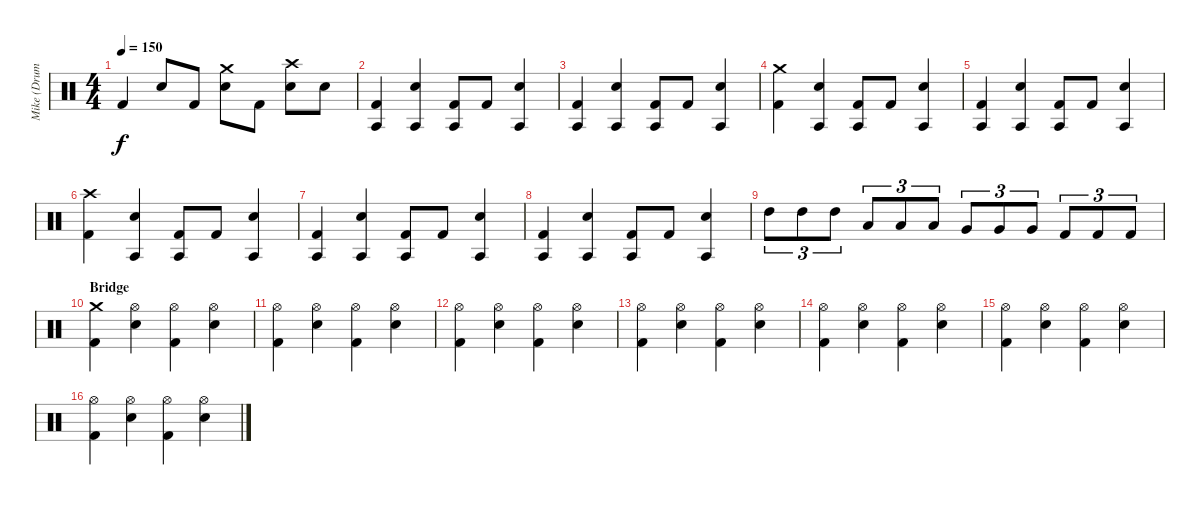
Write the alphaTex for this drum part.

\track ("Mike (Drums)" "Mike (Drum") {instrument percussion}
\staff {score}
\articulation defaults
\ts (4 4)
\tempo 150
\clef neutral
\ks c "Kick (hit) 2".4{dy f} "Snare (hit) 2".8 "Kick (hit) 2".8
("Snare (hit) 2" "Crash medium (hit)").8 "Kick (hit) 2".8 ("Snare (hit) 2" "Crash high (hit)").8 "Snare (hit) 2".8 |
("Agogo tow (hit)" "Kick (hit) 2").4 ("Agogo tow (hit)" "Snare (hit) 2").4 ("Agogo tow (hit)" "Kick (hit) 2").8 "Kick (hit) 2".8 ("Agogo tow (hit)" "Snare (hit) 2").4 |
("Agogo tow (hit)" "Kick (hit) 2").4 ("Agogo tow (hit)" "Snare (hit) 2").4 ("Agogo tow (hit)" "Kick (hit) 2").8 "Kick (hit) 2".8 ("Agogo tow (hit)" "Snare (hit) 2").4 |
("Crash medium (hit)" "Kick (hit) 2").4 ("Agogo tow (hit)" "Snare (hit) 2").4 ("Agogo tow (hit)" "Kick (hit) 2").8 "Kick (hit) 2".8 ("Agogo tow (hit)" "Snare (hit) 2").4 |
("Agogo tow (hit)" "Kick (hit) 2").4 ("Agogo tow (hit)" "Snare (hit) 2").4 ("Agogo tow (hit)" "Kick (hit) 2").8 "Kick (hit) 2".8 ("Agogo tow (hit)" "Snare (hit) 2").4 |
("Crash high (hit)" "Kick (hit) 2").4 ("Agogo tow (hit)" "Snare (hit) 2").4 ("Agogo tow (hit)" "Kick (hit) 2").8 "Kick (hit) 2".8 ("Agogo tow (hit)" "Snare (hit) 2").4 |
("Agogo tow (hit)" "Kick (hit) 2").4 ("Agogo tow (hit)" "Snare (hit) 2").4 ("Agogo tow (hit)" "Kick (hit) 2").8 "Kick (hit) 2".8 ("Agogo tow (hit)" "Snare (hit) 2").4 |
("Agogo tow (hit)" "Kick (hit) 2").4 ("Agogo tow (hit)" "Snare (hit) 2").4 ("Agogo tow (hit)" "Kick (hit) 2").8 "Kick (hit) 2".8 ("Agogo tow (hit)" "Snare (hit) 2").4 |
"High Tom (hit)".8{tu (3 2)} "High Tom (hit)".8{tu (3 2)} "High Tom (hit)".8{tu (3 2)} "Low Tom (hit)".8{tu (3 2)} "Low Tom (hit)".8{tu (3 2)} "Low Tom (hit)".8{tu (3 2)} "Very Low Tom (hit)".8{tu (3 2)} "Very Low Tom (hit)".8{tu (3 2)} "Very Low Tom (hit)".8{tu (3 2)} "Kick (hit) 2".8{tu (3 2)} "Kick (hit) 2".8{tu (3 2)} "Kick (hit) 2".8{tu (3 2)} |
\section ("" "Bridge")
("Crash medium (hit)" "Kick (hit) 2").4 ("Hi-Hat (open)" "Snare (hit) 2").4 ("Hi-Hat (open)" "Kick (hit) 2").4 ("Hi-Hat (open)" "Snare (hit) 2").4 |
("Hi-Hat (open)" "Kick (hit) 2").4 ("Hi-Hat (open)" "Snare (hit) 2").4 ("Hi-Hat (open)" "Kick (hit) 2").4 ("Hi-Hat (open)" "Snare (hit) 2").4 |
("Hi-Hat (open)" "Kick (hit) 2").4 ("Hi-Hat (open)" "Snare (hit) 2").4 ("Hi-Hat (open)" "Kick (hit) 2").4 ("Hi-Hat (open)" "Snare (hit) 2").4 |
("Hi-Hat (open)" "Kick (hit) 2").4 ("Hi-Hat (open)" "Snare (hit) 2").4 ("Hi-Hat (open)" "Kick (hit) 2").4 ("Hi-Hat (open)" "Snare (hit) 2").4 |
("Hi-Hat (open)" "Kick (hit) 2").4 ("Hi-Hat (open)" "Snare (hit) 2").4 ("Hi-Hat (open)" "Kick (hit) 2").4 ("Hi-Hat (open)" "Snare (hit) 2").4 |
("Hi-Hat (open)" "Kick (hit) 2").4 ("Hi-Hat (open)" "Snare (hit) 2").4 ("Hi-Hat (open)" "Kick (hit) 2").4 ("Hi-Hat (open)" "Snare (hit) 2").4 |
("Hi-Hat (open)" "Kick (hit) 2").4 ("Hi-Hat (open)" "Snare (hit) 2").4 ("Hi-Hat (open)" "Kick (hit) 2").4 ("Hi-Hat (open)" "Snare (hit) 2").4
